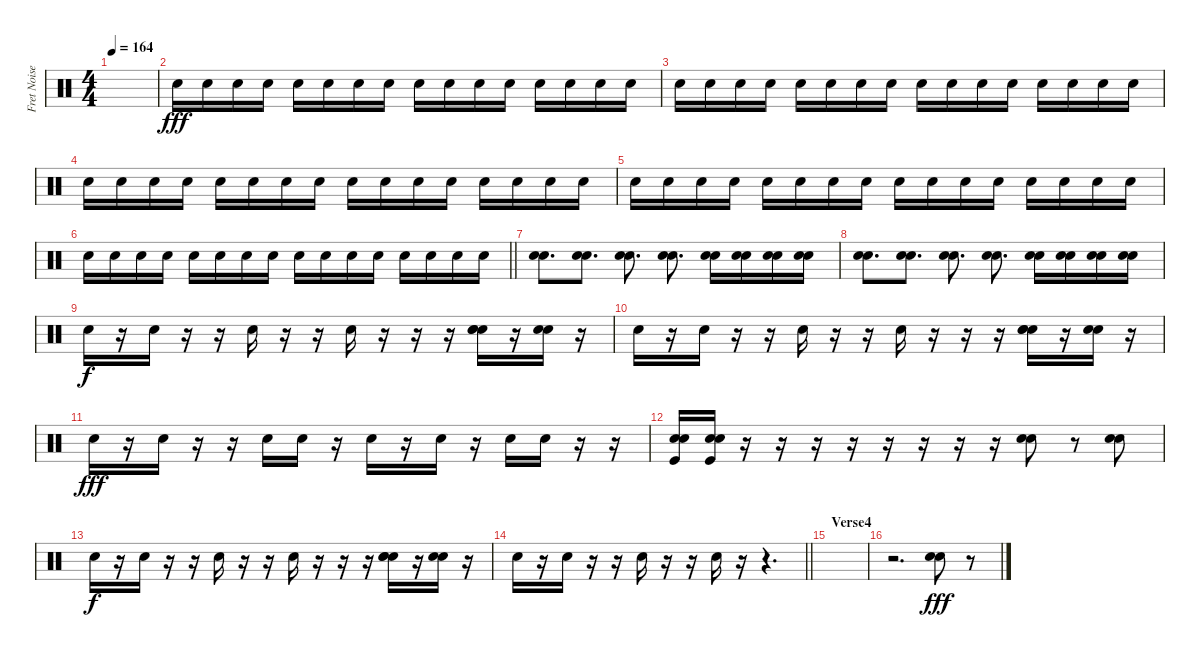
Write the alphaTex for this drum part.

\track ("Fret Noise / Percussion(corpus)" "Fret Noise") {instrument percussion}
\staff {score}
\articulation defaults
\ts (4 4)
\tempo 164
\clef neutral
\ks c
|
"Snare (hit) 2".16{dy fff volume 8} "Snare (hit) 2".16 "Snare (hit) 2".16 "Snare (hit) 2".16 "Snare (hit) 2".16 "Snare (hit) 2".16 "Snare (hit) 2".16 "Snare (hit) 2".16 "Snare (hit) 2".16 "Snare (hit) 2".16 "Snare (hit) 2".16 "Snare (hit) 2".16 "Snare (hit) 2".16 "Snare (hit) 2".16 "Snare (hit) 2".16 "Snare (hit) 2".16 |
"Snare (hit) 2".16 "Snare (hit) 2".16 "Snare (hit) 2".16 "Snare (hit) 2".16 "Snare (hit) 2".16 "Snare (hit) 2".16 "Snare (hit) 2".16 "Snare (hit) 2".16 "Snare (hit) 2".16 "Snare (hit) 2".16 "Snare (hit) 2".16 "Snare (hit) 2".16 "Snare (hit) 2".16 "Snare (hit) 2".16 "Snare (hit) 2".16 "Snare (hit) 2".16 |
"Snare (hit) 2".16 "Snare (hit) 2".16 "Snare (hit) 2".16 "Snare (hit) 2".16 "Snare (hit) 2".16 "Snare (hit) 2".16 "Snare (hit) 2".16 "Snare (hit) 2".16 "Snare (hit) 2".16 "Snare (hit) 2".16 "Snare (hit) 2".16 "Snare (hit) 2".16 "Snare (hit) 2".16 "Snare (hit) 2".16 "Snare (hit) 2".16 "Snare (hit) 2".16 |
"Snare (hit) 2".16 "Snare (hit) 2".16 "Snare (hit) 2".16 "Snare (hit) 2".16 "Snare (hit) 2".16 "Snare (hit) 2".16 "Snare (hit) 2".16 "Snare (hit) 2".16 "Snare (hit) 2".16 "Snare (hit) 2".16 "Snare (hit) 2".16 "Snare (hit) 2".16 "Snare (hit) 2".16 "Snare (hit) 2".16 "Snare (hit) 2".16 "Snare (hit) 2".16 |
\barLineRight lightlight "Snare (hit) 2".16 "Snare (hit) 2".16 "Snare (hit) 2".16 "Snare (hit) 2".16 "Snare (hit) 2".16 "Snare (hit) 2".16 "Snare (hit) 2".16 "Snare (hit) 2".16 "Snare (hit) 2".16 "Snare (hit) 2".16 "Snare (hit) 2".16 "Snare (hit) 2".16 "Snare (hit) 2".16 "Snare (hit) 2".16 "Snare (hit) 2".16 "Snare (hit) 2".16
|
("Snare (hit) 2" "Snare (hit) 2").8{d} ("Snare (hit) 2" "Snare (hit) 2").8{d} ("Snare (hit) 2" "Snare (hit) 2").8{d} ("Snare (hit) 2" "Snare (hit) 2").8{d} ("Snare (hit) 2" "Snare (hit) 2").16 ("Snare (hit) 2" "Snare (hit) 2").16 ("Snare (hit) 2" "Snare (hit) 2").16 ("Snare (hit) 2" "Snare (hit) 2").16 |
("Snare (hit) 2" "Snare (hit) 2").8{d} ("Snare (hit) 2" "Snare (hit) 2").8{d} ("Snare (hit) 2" "Snare (hit) 2").8{d} ("Snare (hit) 2" "Snare (hit) 2").8{d} ("Snare (hit) 2" "Snare (hit) 2").16 ("Snare (hit) 2" "Snare (hit) 2").16 ("Snare (hit) 2" "Snare (hit) 2").16 ("Snare (hit) 2" "Snare (hit) 2").16 |
"Snare (hit) 2".16{dy f} r.16 "Snare (hit) 2".16 r.16 r.16 "Snare (hit) 2".16 r.16 r.16 "Snare (hit) 2".16 r.16 r.16 r.16 ("Snare (hit) 2" "Snare (hit) 2" "Snare (hit) 2").16 r.16 ("Snare (hit) 2" "Snare (hit) 2").16 r.16 |
"Snare (hit) 2".16 r.16 "Snare (hit) 2".16 r.16 r.16 "Snare (hit) 2".16 r.16 r.16 "Snare (hit) 2".16 r.16 r.16 r.16 ("Snare (hit) 2" "Snare (hit) 2" "Snare (hit) 2").16 r.16 ("Snare (hit) 2" "Snare (hit) 2").16 r.16 |
"Snare (hit) 2".16{dy fff} r.16 "Snare (hit) 2".16 r.16 r.16 "Snare (hit) 2".16 "Snare (hit) 2".16 r.16 "Snare (hit) 2".16 r.16 "Snare (hit) 2".16 r.16 "Snare (hit) 2".16 "Snare (hit) 2".16 r.16 r.16 |
("Snare (hit) 2" "Snare (hit) 2" "Kick (hit)").16 ("Snare (hit) 2" "Snare (hit) 2" "Kick (hit)").16 r.16 r.16 r.16 r.16 r.16 r.16 r.16 r.16 ("Snare (hit) 2" "Snare (hit) 2").8 r.8 ("Snare (hit) 2" "Snare (hit) 2").8 |
"Snare (hit) 2".16{dy f} r.16 "Snare (hit) 2".16 r.16 r.16 "Snare (hit) 2".16 r.16 r.16 "Snare (hit) 2".16 r.16 r.16 r.16 ("Snare (hit) 2" "Snare (hit) 2" "Snare (hit) 2").16 r.16 ("Snare (hit) 2" "Snare (hit) 2").16 r.16 |
\barLineRight lightlight "Snare (hit) 2".16
r.16 "Snare (hit) 2".16 r.16 r.16 "Snare (hit) 2".16 r.16 r.16 "Snare (hit) 2".16 r.16 r.4{d} |
\section ("" "Verse4")
|
r.2{d} ("Snare (hit) 2" "Snare (hit) 2").8{dy fff} r.8
